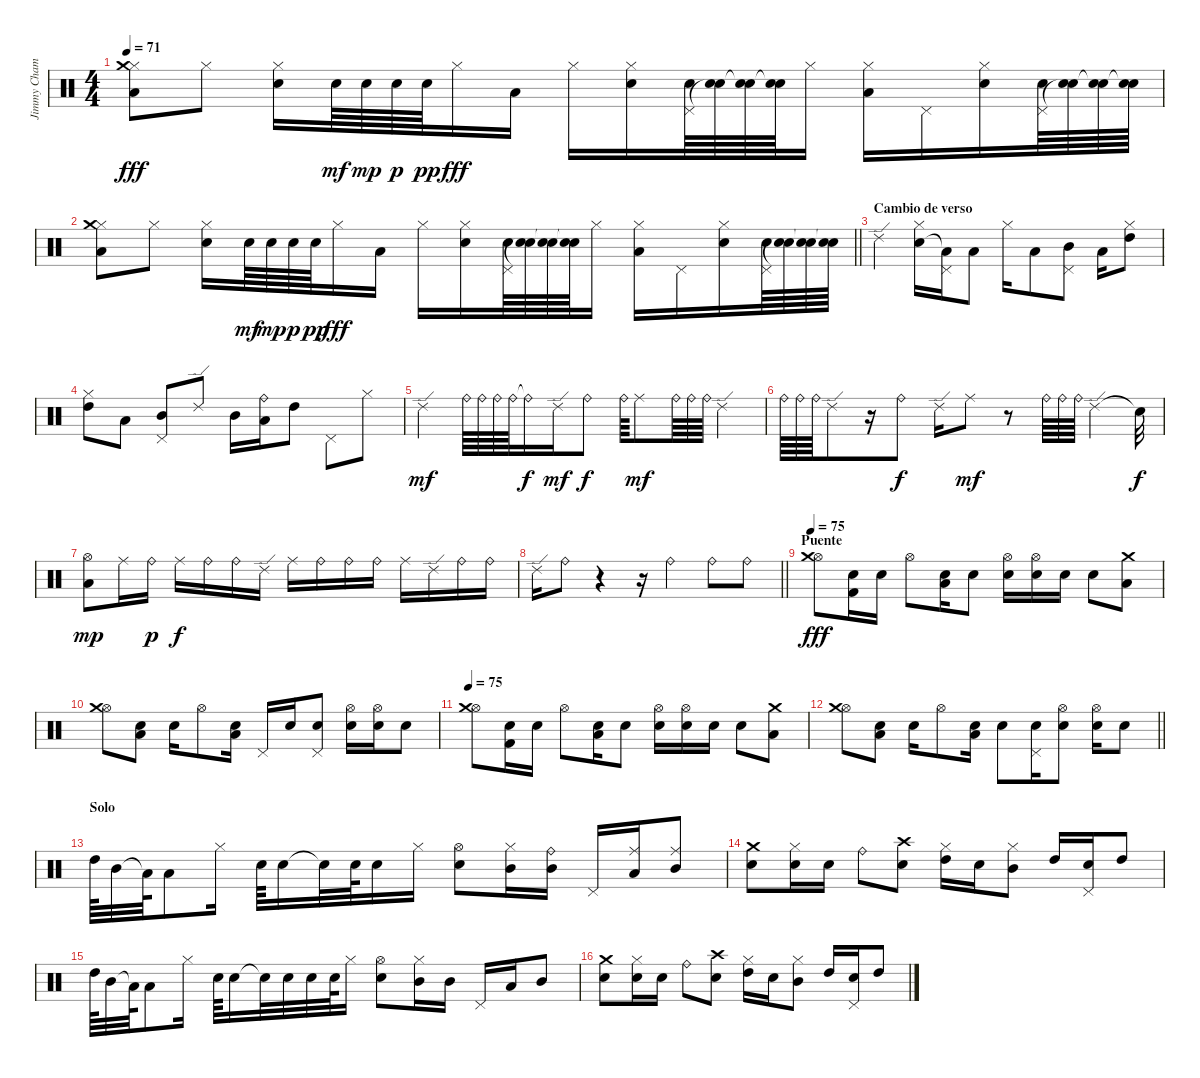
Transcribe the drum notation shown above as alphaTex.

\track ("Jimmy Chamberlin" "Jimmy Cham") {instrument percussion}
\staff {score}
\articulation defaults
\ts (4 4)
\tempo 71
\clef neutral
\ks c
("Low Tom (hit)" "Hi-Hat (closed)" "Crash medium (hit)").8{dy fff} "Hi-Hat (closed)".8 ("Hi-Hat (closed)" "Snare (hit) 2").16 "Snare (hit) 2".64{dy mf} "Snare (hit) 2".64{dy mp} "Snare (hit) 2".64{dy p} "Snare (hit) 2".64{dy pp} "Hi-Hat (closed)".16{dy fff} "Low Tom (hit)".16 "Hi-Hat (closed)".16 ("Snare (hit) 2" "Hi-Hat (closed)").16 ("Snare (hit) 2" "Pedal Hi-Hat (hit)").64 ("Snare (hit) 2" "Snare (hit)"{t}).64 ("Snare (hit) 2" "Snare (hit)"{t}).64 ("Snare (hit) 2" "Snare (hit)"{t}).64 "Hi-Hat (closed)".16 ("Low Tom (hit)" "Hi-Hat (closed)").16 "Pedal Hi-Hat (hit)".16 ("Snare (hit) 2" "Hi-Hat (closed)").16 ("Snare (hit) 2" "Pedal Hi-Hat (hit)").64 ("Snare (hit) 2" "Snare (hit)"{t}).64 ("Snare (hit) 2" "Snare (hit)"{t}).64 ("Snare (hit) 2" "Snare (hit)"{t}).64 |
\barLineRight lightlight
("Low Tom (hit)" "Hi-Hat (closed)" "Crash medium (hit)").8 "Hi-Hat (closed)".8 ("Hi-Hat (closed)" "Snare (hit) 2").16 "Snare (hit) 2".64{dy mf} "Snare (hit) 2".64{dy mp} "Snare (hit) 2".64{dy p} "Snare (hit) 2".64{dy pp} "Hi-Hat (closed)".16{dy fff} "Low Tom (hit)".16 "Hi-Hat (closed)".16 ("Snare (hit) 2" "Hi-Hat (closed)").16 ("Snare (hit) 2" "Pedal Hi-Hat (hit)").64 ("Snare (hit) 2" "Snare (hit)"{t}).64 ("Snare (hit) 2" "Snare (hit)"{t}).64 ("Snare (hit) 2" "Snare (hit)"{t}).64 "Hi-Hat (closed)".16 ("Low Tom (hit)" "Hi-Hat (closed)").16 "Pedal Hi-Hat (hit)".16 ("Snare (hit) 2" "Hi-Hat (closed)").16 ("Snare (hit) 2" "Pedal Hi-Hat (hit)").64 ("Snare (hit) 2" "Snare (hit)"{t}).64 ("Snare (hit) 2" "Snare (hit)"{t}).64 ("Snare (hit) 2" "Snare (hit)"{t}).64 |
\section ("" "Cambio de verso")
"Ride (edge) 2".4 ("Snare (hit) 2" "Hi-Hat (closed)").16 ("Low Tom (hit)"{t} "Pedal Hi-Hat (hit)").16 "Low Tom (hit)".8 "Hi-Hat (closed)".16 "Low Tom (hit)".8 ("Mid Tom (hit)" "Pedal Hi-Hat (hit)").8 "Low Tom (hit)".16 ("High Tom (hit)" "Hi-Hat (closed)").8 |
("High Tom (hit)" "Hi-Hat (closed)").8 "Low Tom (hit)".8 ("Mid Tom (hit)" "Pedal Hi-Hat (hit)").8 "Ride (edge) 2".8 "Mid Tom (hit)".16 ("Low Tom (hit)" "Ride (bell)").16 "High Tom (hit)".8 "Pedal Hi-Hat (hit)".8 "Hi-Hat (closed)".8 |
"Ride (edge) 2".4{dy mf} "Ride (bell)".64 "Ride (bell)".64 "Ride (bell)".64 "Ride (bell)".64 "Ride (bell)"{t}.16{dy f} "Ride (edge) 2".16{dy mf} "Ride (bell)".8{dy f} "Ride (bell)".64 "Ride (middle)".8{dy mf} "Ride (bell)".64 "Ride (bell)".64 "Ride (bell)".64 "Ride (edge) 2".4 |
"Ride (bell)".64 "Ride (bell)".64 "Ride (bell)".64 "Ride (edge) 2".8 r.16 "Ride (bell)".8{dy f} "Ride (edge) 2".16 "Ride (middle)".8{dy mf} r.8 "Ride (bell)".64 "Ride (bell)".64 "Ride (bell)".64 "Ride (edge) 2".4 "Snare (hit)"{t}.32{dy f} |
("Low Tom (hit)" "Hi-Hat (open)").8{dy mp} "Ride (middle)".16 "Ride (bell)".16{dy p} "Ride (middle)".16{dy f} "Ride (bell)".16 "Ride (bell)".16 "Ride (edge) 2".16 "Ride (middle)".16 "Ride (bell)".16 "Ride (bell)".16 "Ride (bell)".16 "Ride (middle)".16 "Ride (edge) 2".16 "Ride (bell)".16 "Ride (bell)".16 |
\barLineRight lightlight "Ride (edge) 2".16 "Ride (bell)".8
r.4 r.16 "Ride (bell)".4 "Ride (bell)".8 "Ride (bell)".8 |
\section ("" "Puente")
\tempo 75
("Hi-Hat (open)" "Crash medium (hit)").8{dy fff} ("Snare (hit) 2" "Kick (hit) 2").16 "Snare (hit) 2".16 "Hi-Hat (open)".8 ("Snare (hit) 2" "Low Tom (hit)").16 "Snare (hit) 2".8 ("Hi-Hat (open)" "Snare (hit) 2").16 ("Snare (hit) 2" "Hi-Hat (open)").16 "Snare (hit) 2".16 "Snare (hit) 2".8 ("Crash medium (hit)" "Low Floor Tom (hit)").8 |
("Hi-Hat (open)" "Crash medium (hit)").8 ("Snare (hit) 2" "Low Floor Tom (hit)").8 "Snare (hit) 2".16 "Hi-Hat (open)".8 ("Snare (hit) 2" "Low Tom (hit)").16 "Pedal Hi-Hat (hit)".16 "Snare (hit) 2".16 ("Pedal Hi-Hat (hit)" "Snare (hit) 2").8 ("Hi-Hat (open)" "Snare (hit) 2").16 ("Snare (hit) 2" "Hi-Hat (open)").16 "Snare (hit) 2".8 |
\tempo 75
("Hi-Hat (open)" "Crash medium (hit)").8 ("Snare (hit) 2" "Kick (hit) 2").16 "Snare (hit) 2".16 "Hi-Hat (open)".8 ("Snare (hit) 2" "Low Tom (hit)").16 "Snare (hit) 2".8 ("Hi-Hat (open)" "Snare (hit) 2").16 ("Snare (hit) 2" "Hi-Hat (open)").16 "Snare (hit) 2".16 "Snare (hit) 2".8 ("Crash medium (hit)" "Low Floor Tom (hit)").8 |
\barLineRight lightlight
("Hi-Hat (open)" "Crash medium (hit)").8 ("Snare (hit) 2" "Low Floor Tom (hit)").8 "Snare (hit) 2".16 "Hi-Hat (open)".8 ("Snare (hit) 2" "Low Tom (hit)").16 "Snare (hit) 2".8 ("Pedal Hi-Hat (hit)" "Snare (hit) 2").16 ("Hi-Hat (open)" "Snare (hit) 2").8 ("Snare (hit) 2" "Hi-Hat (open)").16 "Snare (hit) 2".8 |
\section ("" "Solo")
"High Tom (hit)".64 "Mid Tom (hit)".32 "Low Tom (hit)"{t}.64 "Low Tom (hit)".8 "Hi-Hat (closed)".16 "Electric Snare (hit)".64 "Electric Snare (hit)".16 "Snare (hit)"{t}.32 "Electric Snare (hit)".64 "Electric Snare (hit)".16 "Hi-Hat (closed)".16 ("Hi-Hat (open)" "Snare (hit) 2").8 ("Mid Tom (hit)" "Hi-Hat (closed)").16 ("Mid Tom (hit)" "Ride (bell)").16 "Pedal Hi-Hat (hit)".16 ("Low Floor Tom (hit)" "Ride (middle)").16 ("Mid Tom (hit)" "Ride (middle)").8 |
("Snare (hit) 2" "Crash medium (hit)").8 ("Hi-Hat (closed)" "Electric Snare (hit)").16 "Electric Snare (hit)".16 "Ride (bell)".8 ("Snare (hit) 2" "Crash high (hit)").8 ("High Tom (hit)" "Hi-Hat (closed)").16 "Electric Snare (hit)".16 ("Mid Tom (hit)" "Hi-Hat (closed)").8 "High Tom (hit)".16 ("Snare (hit) 2" "Pedal Hi-Hat (hit)").16 "High Tom (hit)".8 |
"High Tom (hit)".64 "Mid Tom (hit)".32 "Low Tom (hit)"{t}.64 "Low Tom (hit)".8 "Hi-Hat (closed)".16 "Electric Snare (hit)".64 "Electric Snare (hit)".16 "Snare (hit)"{t}.32 "Electric Snare (hit)".32 "Electric Snare (hit)".32 "Electric Snare (hit)".64 "Hi-Hat (closed)".16 ("Hi-Hat (open)" "Snare (hit) 2").8 ("Mid Tom (hit)" "Hi-Hat (closed)").16 "Mid Tom (hit)".16 "Pedal Hi-Hat (hit)".16 "Low Floor Tom (hit)".16 "Mid Tom (hit)".8 |
("Snare (hit) 2" "Crash medium (hit)").8 ("Hi-Hat (closed)" "Electric Snare (hit)").16 "Electric Snare (hit)".16 "Ride (bell)".8 ("Snare (hit) 2" "Crash high (hit)").8 ("High Tom (hit)" "Hi-Hat (closed)").16 "Electric Snare (hit)".16 ("Mid Tom (hit)" "Hi-Hat (closed)").8 "High Tom (hit)".16 ("Snare (hit) 2" "Pedal Hi-Hat (hit)").16 "High Tom (hit)".8
